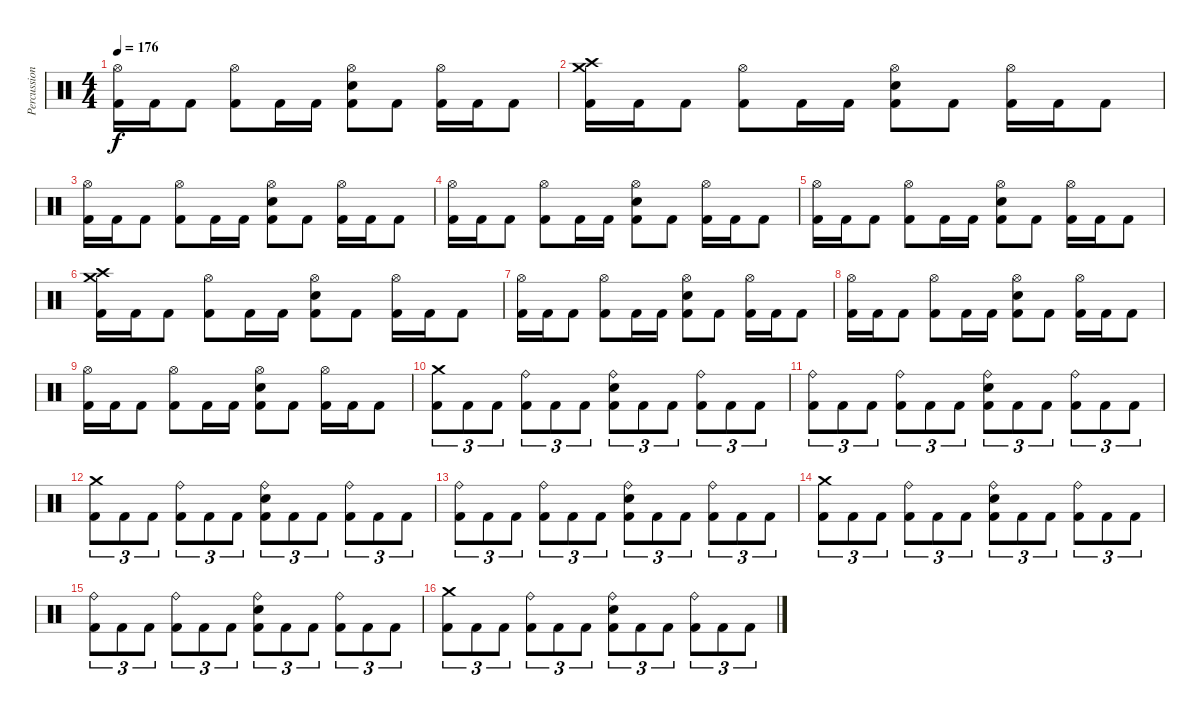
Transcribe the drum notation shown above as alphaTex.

\track ("Percussion" "Percussion") {instrument percussion}
\staff {score}
\articulation defaults
\ts (4 4)
\tempo 176
\clef neutral
\ks c
("Hi-Hat (open)" "Kick (hit) 2").16{dy f} "Kick (hit) 2".16 "Kick (hit) 2".8 ("Hi-Hat (open)" "Kick (hit) 2").8 "Kick (hit) 2".16 "Kick (hit) 2".16 ("Hi-Hat (open)" "Snare (hit) 2" "Kick (hit) 2").8 "Kick (hit) 2".8 ("Hi-Hat (open)" "Kick (hit) 2").16 "Kick (hit) 2".16 "Kick (hit) 2".8 |
("Crash high (hit)" "Crash medium (hit)" "Kick (hit) 2").16 "Kick (hit) 2".16 "Kick (hit) 2".8 ("Hi-Hat (open)" "Kick (hit) 2").8 "Kick (hit) 2".16 "Kick (hit) 2".16 ("Hi-Hat (open)" "Snare (hit) 2" "Kick (hit) 2").8 "Kick (hit) 2".8 ("Hi-Hat (open)" "Kick (hit) 2").16 "Kick (hit) 2".16 "Kick (hit) 2".8 |
("Hi-Hat (open)" "Kick (hit) 2").16 "Kick (hit) 2".16 "Kick (hit) 2".8 ("Hi-Hat (open)" "Kick (hit) 2").8 "Kick (hit) 2".16 "Kick (hit) 2".16 ("Hi-Hat (open)" "Snare (hit) 2" "Kick (hit) 2").8 "Kick (hit) 2".8 ("Hi-Hat (open)" "Kick (hit) 2").16 "Kick (hit) 2".16 "Kick (hit) 2".8 |
("Hi-Hat (open)" "Kick (hit) 2").16 "Kick (hit) 2".16 "Kick (hit) 2".8 ("Hi-Hat (open)" "Kick (hit) 2").8 "Kick (hit) 2".16 "Kick (hit) 2".16 ("Hi-Hat (open)" "Snare (hit) 2" "Kick (hit) 2").8 "Kick (hit) 2".8 ("Hi-Hat (open)" "Kick (hit) 2").16 "Kick (hit) 2".16 "Kick (hit) 2".8 |
("Hi-Hat (open)" "Kick (hit) 2").16 "Kick (hit) 2".16 "Kick (hit) 2".8 ("Hi-Hat (open)" "Kick (hit) 2").8 "Kick (hit) 2".16 "Kick (hit) 2".16 ("Hi-Hat (open)" "Snare (hit) 2" "Kick (hit) 2").8 "Kick (hit) 2".8 ("Hi-Hat (open)" "Kick (hit) 2").16 "Kick (hit) 2".16 "Kick (hit) 2".8 |
("Crash high (hit)" "Crash medium (hit)" "Kick (hit) 2").16 "Kick (hit) 2".16 "Kick (hit) 2".8 ("Hi-Hat (open)" "Kick (hit) 2").8 "Kick (hit) 2".16 "Kick (hit) 2".16 ("Hi-Hat (open)" "Snare (hit) 2" "Kick (hit) 2").8 "Kick (hit) 2".8 ("Hi-Hat (open)" "Kick (hit) 2").16 "Kick (hit) 2".16 "Kick (hit) 2".8 |
("Hi-Hat (open)" "Kick (hit) 2").16 "Kick (hit) 2".16 "Kick (hit) 2".8 ("Hi-Hat (open)" "Kick (hit) 2").8 "Kick (hit) 2".16 "Kick (hit) 2".16 ("Hi-Hat (open)" "Snare (hit) 2" "Kick (hit) 2").8 "Kick (hit) 2".8 ("Hi-Hat (open)" "Kick (hit) 2").16 "Kick (hit) 2".16 "Kick (hit) 2".8 |
("Hi-Hat (open)" "Kick (hit) 2").16 "Kick (hit) 2".16 "Kick (hit) 2".8 ("Hi-Hat (open)" "Kick (hit) 2").8 "Kick (hit) 2".16 "Kick (hit) 2".16 ("Hi-Hat (open)" "Snare (hit) 2" "Kick (hit) 2").8 "Kick (hit) 2".8 ("Hi-Hat (open)" "Kick (hit) 2").16 "Kick (hit) 2".16 "Kick (hit) 2".8 |
("Hi-Hat (open)" "Kick (hit) 2").16 "Kick (hit) 2".16 "Kick (hit) 2".8 ("Hi-Hat (open)" "Kick (hit) 2").8 "Kick (hit) 2".16 "Kick (hit) 2".16 ("Hi-Hat (open)" "Snare (hit) 2" "Kick (hit) 2").8 "Kick (hit) 2".8 ("Hi-Hat (open)" "Kick (hit) 2").16 "Kick (hit) 2".16 "Kick (hit) 2".8 |
("Crash medium (hit)" "Kick (hit) 2").8{tu (3 2)} "Kick (hit) 2".8{tu (3 2)} "Kick (hit) 2".8{tu (3 2)} ("Ride (bell)" "Kick (hit) 2").8{tu (3 2)} "Kick (hit) 2".8{tu (3 2)} "Kick (hit) 2".8{tu (3 2)} ("Ride (bell)" "Snare (hit) 2" "Kick (hit) 2").8{tu (3 2)} "Kick (hit) 2".8{tu (3 2)} "Kick (hit) 2".8{tu (3 2)} ("Ride (bell)" "Kick (hit) 2").8{tu (3 2)} "Kick (hit) 2".8{tu (3 2)} "Kick (hit) 2".8{tu (3 2)} |
("Ride (bell)" "Kick (hit) 2").8{tu (3 2)} "Kick (hit) 2".8{tu (3 2)} "Kick (hit) 2".8{tu (3 2)} ("Ride (bell)" "Kick (hit) 2").8{tu (3 2)} "Kick (hit) 2".8{tu (3 2)} "Kick (hit) 2".8{tu (3 2)} ("Ride (bell)" "Snare (hit) 2" "Kick (hit) 2").8{tu (3 2)} "Kick (hit) 2".8{tu (3 2)} "Kick (hit) 2".8{tu (3 2)} ("Ride (bell)" "Kick (hit) 2").8{tu (3 2)} "Kick (hit) 2".8{tu (3 2)} "Kick (hit) 2".8{tu (3 2)} |
("Crash medium (hit)" "Kick (hit) 2").8{tu (3 2)} "Kick (hit) 2".8{tu (3 2)} "Kick (hit) 2".8{tu (3 2)} ("Ride (bell)" "Kick (hit) 2").8{tu (3 2)} "Kick (hit) 2".8{tu (3 2)} "Kick (hit) 2".8{tu (3 2)} ("Ride (bell)" "Snare (hit) 2" "Kick (hit) 2").8{tu (3 2)} "Kick (hit) 2".8{tu (3 2)} "Kick (hit) 2".8{tu (3 2)} ("Ride (bell)" "Kick (hit) 2").8{tu (3 2)} "Kick (hit) 2".8{tu (3 2)} "Kick (hit) 2".8{tu (3 2)} |
("Ride (bell)" "Kick (hit) 2").8{tu (3 2)} "Kick (hit) 2".8{tu (3 2)} "Kick (hit) 2".8{tu (3 2)} ("Ride (bell)" "Kick (hit) 2").8{tu (3 2)} "Kick (hit) 2".8{tu (3 2)} "Kick (hit) 2".8{tu (3 2)} ("Ride (bell)" "Snare (hit) 2" "Kick (hit) 2").8{tu (3 2)} "Kick (hit) 2".8{tu (3 2)} "Kick (hit) 2".8{tu (3 2)} ("Ride (bell)" "Kick (hit) 2").8{tu (3 2)} "Kick (hit) 2".8{tu (3 2)} "Kick (hit) 2".8{tu (3 2)} |
("Crash medium (hit)" "Kick (hit) 2").8{tu (3 2)} "Kick (hit) 2".8{tu (3 2)} "Kick (hit) 2".8{tu (3 2)} ("Ride (bell)" "Kick (hit) 2").8{tu (3 2)} "Kick (hit) 2".8{tu (3 2)} "Kick (hit) 2".8{tu (3 2)} ("Ride (bell)" "Snare (hit) 2" "Kick (hit) 2").8{tu (3 2)} "Kick (hit) 2".8{tu (3 2)} "Kick (hit) 2".8{tu (3 2)} ("Ride (bell)" "Kick (hit) 2").8{tu (3 2)} "Kick (hit) 2".8{tu (3 2)} "Kick (hit) 2".8{tu (3 2)} |
("Ride (bell)" "Kick (hit) 2").8{tu (3 2)} "Kick (hit) 2".8{tu (3 2)} "Kick (hit) 2".8{tu (3 2)} ("Ride (bell)" "Kick (hit) 2").8{tu (3 2)} "Kick (hit) 2".8{tu (3 2)} "Kick (hit) 2".8{tu (3 2)} ("Ride (bell)" "Snare (hit) 2" "Kick (hit) 2").8{tu (3 2)} "Kick (hit) 2".8{tu (3 2)} "Kick (hit) 2".8{tu (3 2)} ("Ride (bell)" "Kick (hit) 2").8{tu (3 2)} "Kick (hit) 2".8{tu (3 2)} "Kick (hit) 2".8{tu (3 2)} |
("Crash medium (hit)" "Kick (hit) 2").8{tu (3 2)} "Kick (hit) 2".8{tu (3 2)} "Kick (hit) 2".8{tu (3 2)} ("Ride (bell)" "Kick (hit) 2").8{tu (3 2)} "Kick (hit) 2".8{tu (3 2)} "Kick (hit) 2".8{tu (3 2)} ("Ride (bell)" "Snare (hit) 2" "Kick (hit) 2").8{tu (3 2)} "Kick (hit) 2".8{tu (3 2)} "Kick (hit) 2".8{tu (3 2)} ("Ride (bell)" "Kick (hit) 2").8{tu (3 2)} "Kick (hit) 2".8{tu (3 2)} "Kick (hit) 2".8{tu (3 2)}
